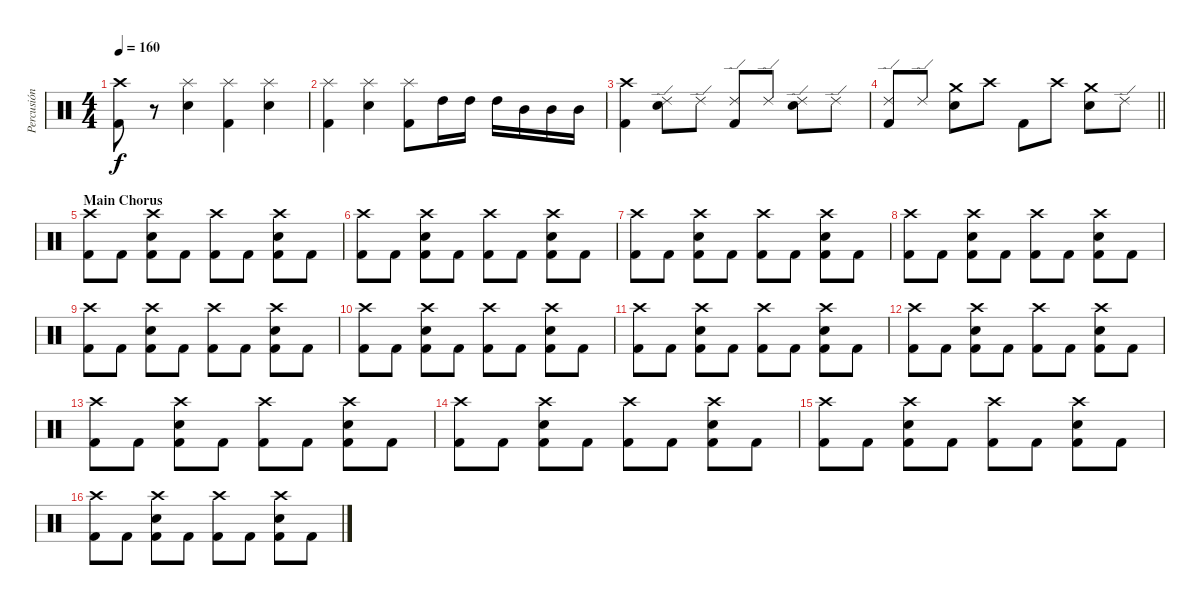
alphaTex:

\track ("Percusión" "Percusión") {instrument percussion}
\staff {score}
\articulation defaults
\ts (4 4)
\tempo 160
\clef neutral
\ks c
("Crash high (hit)" "Kick (hit) 2").8{dy f} r.8 ("Splash (hit)" "Electric Snare (hit)").4 ("Splash (hit)" "Kick (hit) 2").4 ("Splash (hit)" "Electric Snare (hit)").4 |
("Splash (hit)" "Kick (hit) 2").4 ("Splash (hit)" "Electric Snare (hit)").4 ("Splash (hit)" "Kick (hit) 2").8 "High Tom (hit)".16 "High Tom (hit)".16 "High Tom (hit)".16 "Mid Tom (hit)".16 "Mid Tom (hit)".16 "Mid Tom (hit)".16 |
("Crash high (hit)" "Kick (hit) 2").4 ("Ride (edge) 2" "Electric Snare (hit)").8 "Ride (edge) 2".8 ("Ride (edge) 2" "Kick (hit) 2").8 "Ride (edge) 2".8 ("Ride (edge) 2" "Electric Snare (hit)").8 "Ride (edge) 2".8 |
\barLineRight lightlight
("Ride (edge) 2" "Kick (hit) 2").8 "Ride (edge) 2".8 ("Crash medium (hit)" "Electric Snare (hit)").8 "Crash high (hit)".8 "Kick (hit) 2".8 "Crash high (hit)".8 ("Crash medium (hit)" "Electric Snare (hit)").8 "Ride (edge) 2".8 |
\section ("" "Main Chorus")
("Crash high (hit)" "Kick (hit) 2").8 "Kick (hit) 2".8 ("Crash high (hit)" "Electric Snare (hit)" "Kick (hit) 2").8 "Kick (hit) 2".8 ("Crash high (hit)" "Kick (hit) 2").8 "Kick (hit) 2".8 ("Crash high (hit)" "Electric Snare (hit)" "Kick (hit) 2").8 "Kick (hit) 2".8 |
("Crash high (hit)" "Kick (hit) 2").8 "Kick (hit) 2".8 ("Crash high (hit)" "Electric Snare (hit)" "Kick (hit) 2").8 "Kick (hit) 2".8 ("Crash high (hit)" "Kick (hit) 2").8 "Kick (hit) 2".8 ("Crash high (hit)" "Electric Snare (hit)" "Kick (hit) 2").8 "Kick (hit) 2".8 |
("Crash high (hit)" "Kick (hit) 2").8 "Kick (hit) 2".8 ("Crash high (hit)" "Electric Snare (hit)" "Kick (hit) 2").8 "Kick (hit) 2".8 ("Crash high (hit)" "Kick (hit) 2").8 "Kick (hit) 2".8 ("Crash high (hit)" "Electric Snare (hit)" "Kick (hit) 2").8 "Kick (hit) 2".8 |
("Crash high (hit)" "Kick (hit) 2").8 "Kick (hit) 2".8 ("Crash high (hit)" "Electric Snare (hit)" "Kick (hit) 2").8 "Kick (hit) 2".8 ("Crash high (hit)" "Kick (hit) 2").8 "Kick (hit) 2".8 ("Crash high (hit)" "Electric Snare (hit)" "Kick (hit) 2").8 "Kick (hit) 2".8 |
("Crash high (hit)" "Kick (hit) 2").8 "Kick (hit) 2".8 ("Crash high (hit)" "Electric Snare (hit)" "Kick (hit) 2").8 "Kick (hit) 2".8 ("Crash high (hit)" "Kick (hit) 2").8 "Kick (hit) 2".8 ("Crash high (hit)" "Electric Snare (hit)" "Kick (hit) 2").8 "Kick (hit) 2".8 |
("Crash high (hit)" "Kick (hit) 2").8 "Kick (hit) 2".8 ("Crash high (hit)" "Electric Snare (hit)" "Kick (hit) 2").8 "Kick (hit) 2".8 ("Crash high (hit)" "Kick (hit) 2").8 "Kick (hit) 2".8 ("Crash high (hit)" "Electric Snare (hit)" "Kick (hit) 2").8 "Kick (hit) 2".8 |
("Crash high (hit)" "Kick (hit) 2").8 "Kick (hit) 2".8 ("Crash high (hit)" "Electric Snare (hit)" "Kick (hit) 2").8 "Kick (hit) 2".8 ("Crash high (hit)" "Kick (hit) 2").8 "Kick (hit) 2".8 ("Crash high (hit)" "Electric Snare (hit)" "Kick (hit) 2").8 "Kick (hit) 2".8 |
("Crash high (hit)" "Kick (hit) 2").8 "Kick (hit) 2".8 ("Crash high (hit)" "Electric Snare (hit)" "Kick (hit) 2").8 "Kick (hit) 2".8 ("Crash high (hit)" "Kick (hit) 2").8 "Kick (hit) 2".8 ("Crash high (hit)" "Electric Snare (hit)" "Kick (hit) 2").8 "Kick (hit) 2".8 |
("Crash high (hit)" "Kick (hit) 2").8 "Kick (hit) 2".8 ("Crash high (hit)" "Electric Snare (hit)" "Kick (hit) 2").8 "Kick (hit) 2".8 ("Crash high (hit)" "Kick (hit) 2").8 "Kick (hit) 2".8 ("Crash high (hit)" "Electric Snare (hit)" "Kick (hit) 2").8 "Kick (hit) 2".8 |
("Crash high (hit)" "Kick (hit) 2").8 "Kick (hit) 2".8 ("Crash high (hit)" "Electric Snare (hit)" "Kick (hit) 2").8 "Kick (hit) 2".8 ("Crash high (hit)" "Kick (hit) 2").8 "Kick (hit) 2".8 ("Crash high (hit)" "Electric Snare (hit)" "Kick (hit) 2").8 "Kick (hit) 2".8 |
("Crash high (hit)" "Kick (hit) 2").8 "Kick (hit) 2".8 ("Crash high (hit)" "Electric Snare (hit)" "Kick (hit) 2").8 "Kick (hit) 2".8 ("Crash high (hit)" "Kick (hit) 2").8 "Kick (hit) 2".8 ("Crash high (hit)" "Electric Snare (hit)" "Kick (hit) 2").8 "Kick (hit) 2".8 |
("Crash high (hit)" "Kick (hit) 2").8 "Kick (hit) 2".8 ("Crash high (hit)" "Electric Snare (hit)" "Kick (hit) 2").8 "Kick (hit) 2".8 ("Crash high (hit)" "Kick (hit) 2").8 "Kick (hit) 2".8 ("Crash high (hit)" "Electric Snare (hit)" "Kick (hit) 2").8 "Kick (hit) 2".8
